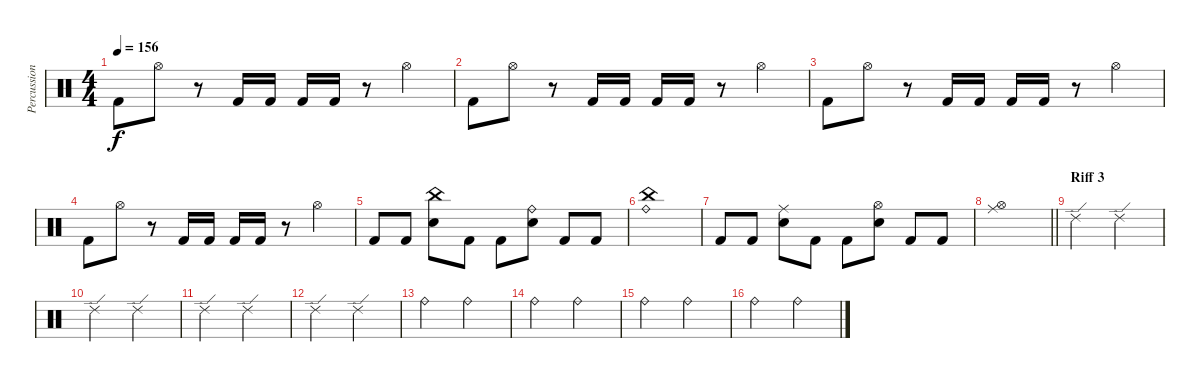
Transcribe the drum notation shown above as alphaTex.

\track ("Percussion" "Percussion") {instrument percussion}
\staff {score}
\articulation defaults
\ts (4 4)
\tempo 156
\clef neutral
\ks c "Kick (hit) 2".8{dy f} "Hi-Hat (open)".8
r.8 "Kick (hit) 2".16 "Kick (hit) 2".16 "Kick (hit) 2".16 "Kick (hit) 2".16 r.8 "Hi-Hat (open)".4 |
"Kick (hit) 2".8 "Hi-Hat (open)".8 r.8 "Kick (hit) 2".16 "Kick (hit) 2".16 "Kick (hit) 2".16 "Kick (hit) 2".16 r.8 "Hi-Hat (open)".4 |
"Kick (hit) 2".8 "Hi-Hat (open)".8 r.8 "Kick (hit) 2".16 "Kick (hit) 2".16 "Kick (hit) 2".16 "Kick (hit) 2".16 r.8 "Hi-Hat (open)".4 |
"Kick (hit) 2".8 "Hi-Hat (open)".8 r.8 "Kick (hit) 2".16 "Kick (hit) 2".16 "Kick (hit) 2".16 "Kick (hit) 2".16 r.8 "Hi-Hat (open)".4 |
"Kick (hit) 2".8 "Kick (hit) 2".8 ("China (hit)" "Snare (hit) 2").8 "Kick (hit) 2".8 "Kick (hit) 2".8 ("Ride (bell)" "Snare (hit) 2").8 "Kick (hit) 2".8 "Kick (hit) 2".8 |
("China (hit)" "Ride (bell)").1 |
"Kick (hit) 2".8 "Kick (hit) 2".8 ("Ride (middle)" "Snare (hit) 2").8 "Kick (hit) 2".8 "Kick (hit) 2".8 ("Hi-Hat (open)" "Snare (hit) 2").8 "Kick (hit) 2".8 "Kick (hit) 2".8 |
\barLineRight lightlight
("Ride (middle)" "Hi-Hat (open)").1 |
\section ("" "Riff 3")
"Ride (edge) 2".2 "Ride (edge) 2".2 |
"Ride (edge) 2".2 "Ride (edge) 2".2 |
"Ride (edge) 2".2 "Ride (edge) 2".2 |
"Ride (edge) 2".2 "Ride (edge) 2".2 |
"Ride (bell)".2 "Ride (bell)".2 |
"Ride (bell)".2 "Ride (bell)".2 |
"Ride (bell)".2 "Ride (bell)".2 |
"Ride (bell)".2 "Ride (bell)".2
